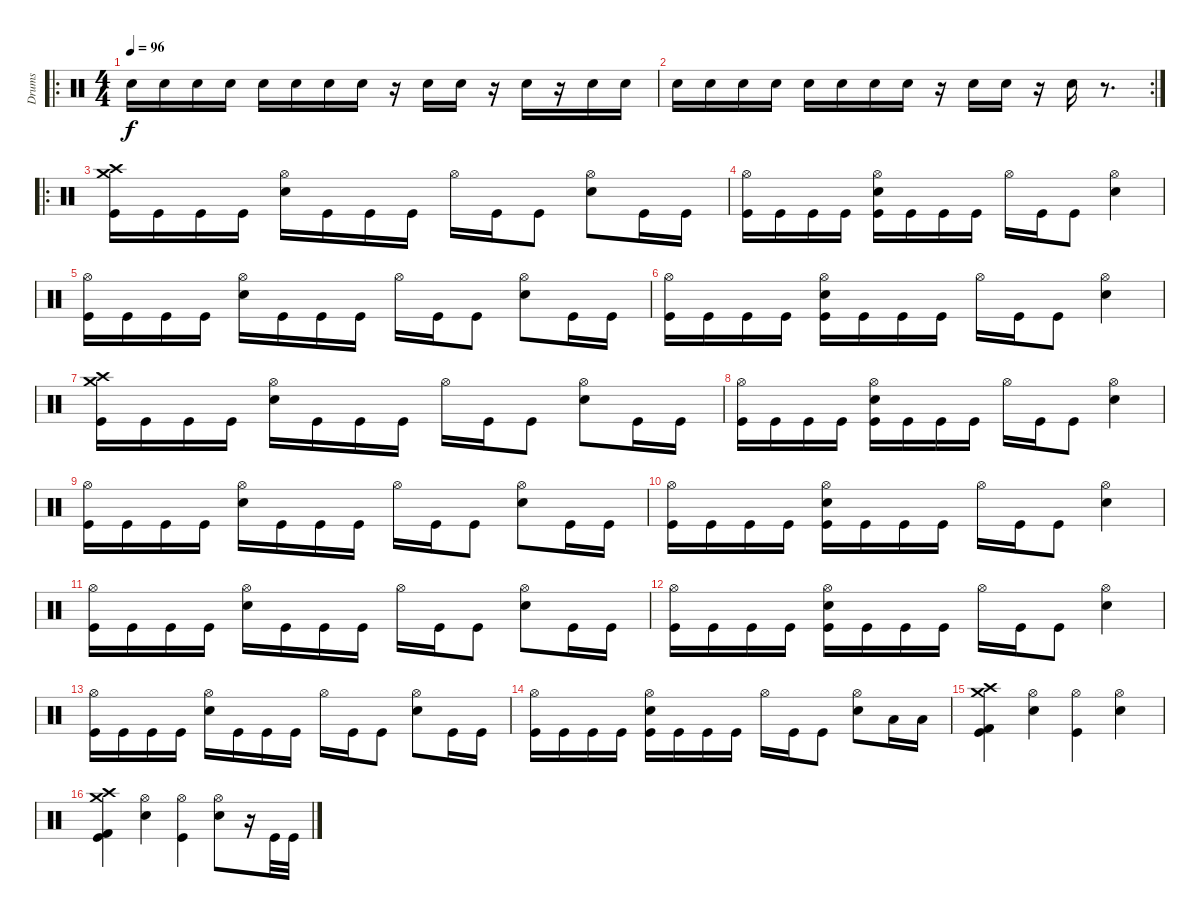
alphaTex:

\track ("Drums" "Drums") {instrument percussion}
\staff {score}
\articulation defaults
\ro
\ts (4 4)
\tempo 96
\clef neutral
\ks c "Electric Snare (hit)".16{dy f} "Electric Snare (hit)".16 "Electric Snare (hit)".16 "Electric Snare (hit)".16 "Electric Snare (hit)".16 "Electric Snare (hit)".16 "Electric Snare (hit)".16 "Electric Snare (hit)".16
r.16 "Electric Snare (hit)".16 "Electric Snare (hit)".16 r.16 "Electric Snare (hit)".16 r.16 "Electric Snare (hit)".16 "Electric Snare (hit)".16 |
\rc 2 "Electric Snare (hit)".16 "Electric Snare (hit)".16 "Electric Snare (hit)".16 "Electric Snare (hit)".16 "Electric Snare (hit)".16 "Electric Snare (hit)".16 "Electric Snare (hit)".16 "Electric Snare (hit)".16
r.16 "Electric Snare (hit)".16 "Electric Snare (hit)".16 r.16 "Electric Snare (hit)".16 r.8{d} |
\ro
("Crash medium (hit)" "Crash high (hit)" "Kick (hit)").16 "Kick (hit)".16 "Kick (hit)".16 "Kick (hit)".16 ("Hi-Hat (open)" "Electric Snare (hit)").16 "Kick (hit)".16 "Kick (hit)".16 "Kick (hit)".16 "Hi-Hat (open)".16 "Kick (hit)".16 "Kick (hit)".8 ("Electric Snare (hit)" "Hi-Hat (open)").8 "Kick (hit)".16 "Kick (hit)".16 |
("Hi-Hat (open)" "Kick (hit)").16 "Kick (hit)".16 "Kick (hit)".16 "Kick (hit)".16 ("Electric Snare (hit)" "Hi-Hat (open)" "Kick (hit)").16 "Kick (hit)".16 "Kick (hit)".16 "Kick (hit)".16 "Hi-Hat (open)".16 "Kick (hit)".16 "Kick (hit)".8 ("Electric Snare (hit)" "Hi-Hat (open)").4 |
("Hi-Hat (open)" "Kick (hit)").16 "Kick (hit)".16 "Kick (hit)".16 "Kick (hit)".16 ("Hi-Hat (open)" "Electric Snare (hit)").16 "Kick (hit)".16 "Kick (hit)".16 "Kick (hit)".16 "Hi-Hat (open)".16 "Kick (hit)".16 "Kick (hit)".8 ("Electric Snare (hit)" "Hi-Hat (open)").8 "Kick (hit)".16 "Kick (hit)".16 |
("Hi-Hat (open)" "Kick (hit)").16 "Kick (hit)".16 "Kick (hit)".16 "Kick (hit)".16 ("Electric Snare (hit)" "Hi-Hat (open)" "Kick (hit)").16 "Kick (hit)".16 "Kick (hit)".16 "Kick (hit)".16 "Hi-Hat (open)".16 "Kick (hit)".16 "Kick (hit)".8 ("Electric Snare (hit)" "Hi-Hat (open)").4 |
("Crash medium (hit)" "Crash high (hit)" "Kick (hit)").16 "Kick (hit)".16 "Kick (hit)".16 "Kick (hit)".16 ("Hi-Hat (open)" "Electric Snare (hit)").16 "Kick (hit)".16 "Kick (hit)".16 "Kick (hit)".16 "Hi-Hat (open)".16 "Kick (hit)".16 "Kick (hit)".8 ("Electric Snare (hit)" "Hi-Hat (open)").8 "Kick (hit)".16 "Kick (hit)".16 |
("Hi-Hat (open)" "Kick (hit)").16 "Kick (hit)".16 "Kick (hit)".16 "Kick (hit)".16 ("Electric Snare (hit)" "Hi-Hat (open)" "Kick (hit)").16 "Kick (hit)".16 "Kick (hit)".16 "Kick (hit)".16 "Hi-Hat (open)".16 "Kick (hit)".16 "Kick (hit)".8 ("Electric Snare (hit)" "Hi-Hat (open)").4 |
("Hi-Hat (open)" "Kick (hit)").16 "Kick (hit)".16 "Kick (hit)".16 "Kick (hit)".16 ("Hi-Hat (open)" "Electric Snare (hit)").16 "Kick (hit)".16 "Kick (hit)".16 "Kick (hit)".16 "Hi-Hat (open)".16 "Kick (hit)".16 "Kick (hit)".8 ("Electric Snare (hit)" "Hi-Hat (open)").8 "Kick (hit)".16 "Kick (hit)".16 |
("Hi-Hat (open)" "Kick (hit)").16 "Kick (hit)".16 "Kick (hit)".16 "Kick (hit)".16 ("Electric Snare (hit)" "Hi-Hat (open)" "Kick (hit)").16 "Kick (hit)".16 "Kick (hit)".16 "Kick (hit)".16 "Hi-Hat (open)".16 "Kick (hit)".16 "Kick (hit)".8 ("Electric Snare (hit)" "Hi-Hat (open)").4 |
("Hi-Hat (open)" "Kick (hit)").16 "Kick (hit)".16 "Kick (hit)".16 "Kick (hit)".16 ("Hi-Hat (open)" "Electric Snare (hit)").16 "Kick (hit)".16 "Kick (hit)".16 "Kick (hit)".16 "Hi-Hat (open)".16 "Kick (hit)".16 "Kick (hit)".8 ("Electric Snare (hit)" "Hi-Hat (open)").8 "Kick (hit)".16 "Kick (hit)".16 |
("Hi-Hat (open)" "Kick (hit)").16 "Kick (hit)".16 "Kick (hit)".16 "Kick (hit)".16 ("Electric Snare (hit)" "Hi-Hat (open)" "Kick (hit)").16 "Kick (hit)".16 "Kick (hit)".16 "Kick (hit)".16 "Hi-Hat (open)".16 "Kick (hit)".16 "Kick (hit)".8 ("Electric Snare (hit)" "Hi-Hat (open)").4 |
("Hi-Hat (open)" "Kick (hit)").16 "Kick (hit)".16 "Kick (hit)".16 "Kick (hit)".16 ("Hi-Hat (open)" "Electric Snare (hit)").16 "Kick (hit)".16 "Kick (hit)".16 "Kick (hit)".16 "Hi-Hat (open)".16 "Kick (hit)".16 "Kick (hit)".8 ("Electric Snare (hit)" "Hi-Hat (open)").8 "Kick (hit)".16 "Kick (hit)".16 |
("Hi-Hat (open)" "Kick (hit)").16 "Kick (hit)".16 "Kick (hit)".16 "Kick (hit)".16 ("Electric Snare (hit)" "Hi-Hat (open)" "Kick (hit)").16 "Kick (hit)".16 "Kick (hit)".16 "Kick (hit)".16 "Hi-Hat (open)".16 "Kick (hit)".16 "Kick (hit)".8 ("Electric Snare (hit)" "Hi-Hat (open)").8 "Low Tom (hit)".16 "Low Tom (hit)".16 |
("Crash medium (hit)" "Crash high (hit)" "Kick (hit)" "Kick (hit) 2").4 ("Hi-Hat (open)" "Electric Snare (hit)").4 ("Kick (hit)" "Hi-Hat (open)").4 ("Electric Snare (hit)" "Hi-Hat (open)").4 |
("Crash medium (hit)" "Crash high (hit)" "Kick (hit)" "Kick (hit) 2").4 ("Hi-Hat (open)" "Electric Snare (hit)").4 ("Kick (hit)" "Hi-Hat (open)").4 ("Electric Snare (hit)" "Hi-Hat (open)").8 r.16 "Kick (hit)".32 "Kick (hit)".32
